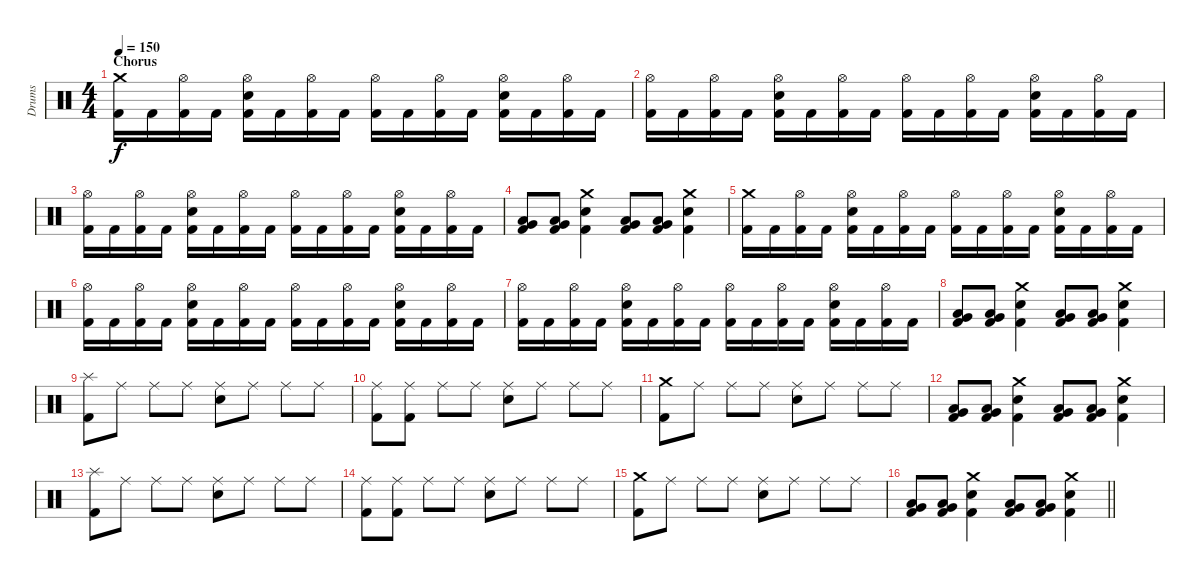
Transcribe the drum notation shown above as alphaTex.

\track ("Drums" "Drums") {instrument percussion}
\staff {score}
\articulation defaults
\ts (4 4)
\section ("" "Chorus ")
\tempo 150
\clef neutral
\ks c
("Crash medium (hit)" "Kick (hit) 2").16{dy f} "Kick (hit) 2".16 ("Hi-Hat (open)" "Kick (hit) 2").16 "Kick (hit) 2".16 ("Hi-Hat (open)" "Snare (hit) 2" "Kick (hit) 2").16 "Kick (hit) 2".16 ("Hi-Hat (open)" "Kick (hit) 2").16 "Kick (hit) 2".16 ("Hi-Hat (open)" "Kick (hit) 2").16 "Kick (hit) 2".16 ("Hi-Hat (open)" "Kick (hit) 2").16 "Kick (hit) 2".16 ("Hi-Hat (open)" "Snare (hit) 2" "Kick (hit) 2").16 "Kick (hit) 2".16 ("Hi-Hat (open)" "Kick (hit) 2").16 "Kick (hit) 2".16 |
("Hi-Hat (open)" "Kick (hit) 2").16 "Kick (hit) 2".16 ("Hi-Hat (open)" "Kick (hit) 2").16 "Kick (hit) 2".16 ("Hi-Hat (open)" "Snare (hit) 2" "Kick (hit) 2").16 "Kick (hit) 2".16 ("Hi-Hat (open)" "Kick (hit) 2").16 "Kick (hit) 2".16 ("Hi-Hat (open)" "Kick (hit) 2").16 "Kick (hit) 2".16 ("Hi-Hat (open)" "Kick (hit) 2").16 "Kick (hit) 2".16 ("Hi-Hat (open)" "Snare (hit) 2" "Kick (hit) 2").16 "Kick (hit) 2".16 ("Hi-Hat (open)" "Kick (hit) 2").16 "Kick (hit) 2".16 |
("Hi-Hat (open)" "Kick (hit) 2").16 "Kick (hit) 2".16 ("Hi-Hat (open)" "Kick (hit) 2").16 "Kick (hit) 2".16 ("Hi-Hat (open)" "Snare (hit) 2" "Kick (hit) 2").16 "Kick (hit) 2".16 ("Hi-Hat (open)" "Kick (hit) 2").16 "Kick (hit) 2".16 ("Hi-Hat (open)" "Kick (hit) 2").16 "Kick (hit) 2".16 ("Hi-Hat (open)" "Kick (hit) 2").16 "Kick (hit) 2".16 ("Hi-Hat (open)" "Snare (hit) 2" "Kick (hit) 2").16 "Kick (hit) 2".16 ("Hi-Hat (open)" "Kick (hit) 2").16 "Kick (hit) 2".16 |
("Low Tom (hit)" "Very Low Tom (hit)" "Kick (hit) 2").8 ("Low Tom (hit)" "Very Low Tom (hit)" "Kick (hit) 2").8 ("Crash medium (hit)" "Snare (hit) 2" "Kick (hit) 2").4 ("Very Low Tom (hit)" "Low Floor Tom (hit)" "Kick (hit) 2").8 ("Very Low Tom (hit)" "Low Floor Tom (hit)" "Kick (hit) 2").8 ("Crash medium (hit)" "Snare (hit) 2" "Kick (hit) 2").4 |
("Crash medium (hit)" "Kick (hit) 2").16 "Kick (hit) 2".16 ("Hi-Hat (open)" "Kick (hit) 2").16 "Kick (hit) 2".16 ("Hi-Hat (open)" "Snare (hit) 2" "Kick (hit) 2").16 "Kick (hit) 2".16 ("Hi-Hat (open)" "Kick (hit) 2").16 "Kick (hit) 2".16 ("Hi-Hat (open)" "Kick (hit) 2").16 "Kick (hit) 2".16 ("Hi-Hat (open)" "Kick (hit) 2").16 "Kick (hit) 2".16 ("Hi-Hat (open)" "Snare (hit) 2" "Kick (hit) 2").16 "Kick (hit) 2".16 ("Hi-Hat (open)" "Kick (hit) 2").16 "Kick (hit) 2".16 |
("Hi-Hat (open)" "Kick (hit) 2").16 "Kick (hit) 2".16 ("Hi-Hat (open)" "Kick (hit) 2").16 "Kick (hit) 2".16 ("Hi-Hat (open)" "Snare (hit) 2" "Kick (hit) 2").16 "Kick (hit) 2".16 ("Hi-Hat (open)" "Kick (hit) 2").16 "Kick (hit) 2".16 ("Hi-Hat (open)" "Kick (hit) 2").16 "Kick (hit) 2".16 ("Hi-Hat (open)" "Kick (hit) 2").16 "Kick (hit) 2".16 ("Hi-Hat (open)" "Snare (hit) 2" "Kick (hit) 2").16 "Kick (hit) 2".16 ("Hi-Hat (open)" "Kick (hit) 2").16 "Kick (hit) 2".16 |
("Hi-Hat (open)" "Kick (hit) 2").16 "Kick (hit) 2".16 ("Hi-Hat (open)" "Kick (hit) 2").16 "Kick (hit) 2".16 ("Hi-Hat (open)" "Snare (hit) 2" "Kick (hit) 2").16 "Kick (hit) 2".16 ("Hi-Hat (open)" "Kick (hit) 2").16 "Kick (hit) 2".16 ("Hi-Hat (open)" "Kick (hit) 2").16 "Kick (hit) 2".16 ("Hi-Hat (open)" "Kick (hit) 2").16 "Kick (hit) 2".16 ("Hi-Hat (open)" "Snare (hit) 2" "Kick (hit) 2").16 "Kick (hit) 2".16 ("Hi-Hat (open)" "Kick (hit) 2").16 "Kick (hit) 2".16 |
("Low Tom (hit)" "Very Low Tom (hit)" "Kick (hit) 2").8 ("Low Tom (hit)" "Very Low Tom (hit)" "Kick (hit) 2").8 ("Crash medium (hit)" "Snare (hit) 2" "Kick (hit) 2").4 ("Very Low Tom (hit)" "Low Floor Tom (hit)" "Kick (hit) 2").8 ("Very Low Tom (hit)" "Low Floor Tom (hit)" "Kick (hit) 2").8 ("Crash medium (hit)" "Snare (hit) 2" "Kick (hit) 2").4 |
("Splash (hit)" "Kick (hit) 2").8 "Ride (middle)".8 "Ride (middle)".8 "Ride (middle)".8 ("Ride (middle)" "Snare (hit) 2").8 "Ride (middle)".8 "Ride (middle)".8 "Ride (middle)".8 |
("Ride (middle)" "Kick (hit) 2").8 ("Ride (middle)" "Kick (hit) 2").8 "Ride (middle)".8 "Ride (middle)".8 ("Ride (middle)" "Snare (hit) 2").8 "Ride (middle)".8 "Ride (middle)".8 "Ride (middle)".8 |
("Crash medium (hit)" "Kick (hit) 2").8 "Ride (middle)".8 "Ride (middle)".8 "Ride (middle)".8 ("Ride (middle)" "Snare (hit) 2").8 "Ride (middle)".8 "Ride (middle)".8 "Ride (middle)".8 |
("Low Tom (hit)" "Very Low Tom (hit)" "Kick (hit) 2").8 ("Low Tom (hit)" "Very Low Tom (hit)" "Kick (hit) 2").8 ("Crash medium (hit)" "Snare (hit) 2" "Kick (hit) 2").4 ("Very Low Tom (hit)" "Low Floor Tom (hit)" "Kick (hit) 2").8 ("Very Low Tom (hit)" "Low Floor Tom (hit)" "Kick (hit) 2").8 ("Crash medium (hit)" "Snare (hit) 2" "Kick (hit) 2").4 |
("Splash (hit)" "Kick (hit) 2").8 "Ride (middle)".8 "Ride (middle)".8 "Ride (middle)".8 ("Ride (middle)" "Snare (hit) 2").8 "Ride (middle)".8 "Ride (middle)".8 "Ride (middle)".8 |
("Ride (middle)" "Kick (hit) 2").8 ("Ride (middle)" "Kick (hit) 2").8 "Ride (middle)".8 "Ride (middle)".8 ("Ride (middle)" "Snare (hit) 2").8 "Ride (middle)".8 "Ride (middle)".8 "Ride (middle)".8 |
("Crash medium (hit)" "Kick (hit) 2").8 "Ride (middle)".8 "Ride (middle)".8 "Ride (middle)".8 ("Ride (middle)" "Snare (hit) 2").8 "Ride (middle)".8 "Ride (middle)".8 "Ride (middle)".8 |
\barLineRight lightlight
("Low Tom (hit)" "Very Low Tom (hit)" "Kick (hit) 2").8 ("Low Tom (hit)" "Very Low Tom (hit)" "Kick (hit) 2").8 ("Crash medium (hit)" "Snare (hit) 2" "Kick (hit) 2").4 ("Very Low Tom (hit)" "Low Floor Tom (hit)" "Kick (hit) 2").8 ("Very Low Tom (hit)" "Low Floor Tom (hit)" "Kick (hit) 2").8 ("Crash medium (hit)" "Snare (hit) 2" "Kick (hit) 2").4
